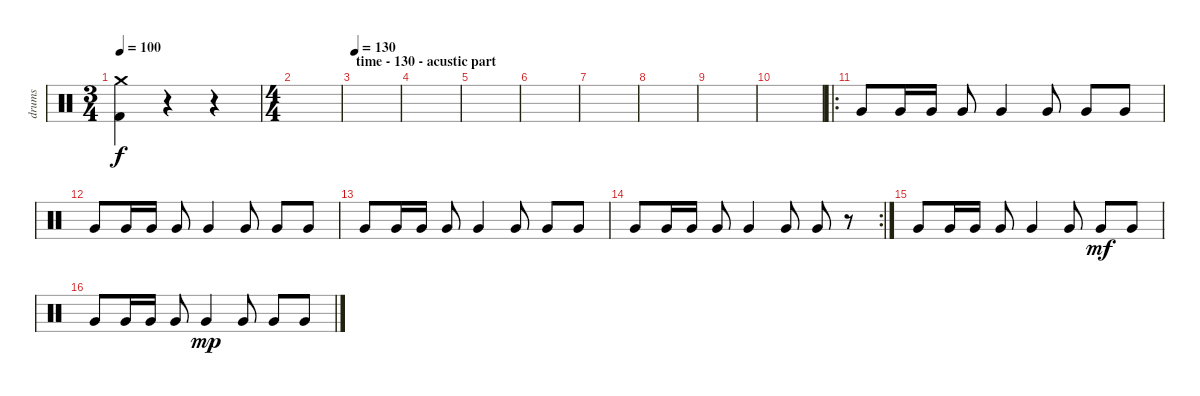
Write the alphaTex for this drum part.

\track ("drums" "drums") {instrument percussion}
\staff {score}
\articulation defaults
\ts (3 4)
\tempo 100
\clef neutral
\ks c
("Kick (hit) 2" "Crash medium (hit)").4{dy f} r.4 r.4 |
\ts (4 4)
|
\section ("" "time - 130 - acustic part")
\tempo 130
|
|
|
|
|
|
|
|
\ro "Very Low Tom (hit)".8 "Very Low Tom (hit)".16 "Very Low Tom (hit)".16 "Very Low Tom (hit)".8 "Very Low Tom (hit)".4 "Very Low Tom (hit)".8 "Very Low Tom (hit)".8 "Very Low Tom (hit)".8
|
"Very Low Tom (hit)".8 "Very Low Tom (hit)".16 "Very Low Tom (hit)".16 "Very Low Tom (hit)".8 "Very Low Tom (hit)".4 "Very Low Tom (hit)".8 "Very Low Tom (hit)".8 "Very Low Tom (hit)".8 |
"Very Low Tom (hit)".8 "Very Low Tom (hit)".16 "Very Low Tom (hit)".16 "Very Low Tom (hit)".8 "Very Low Tom (hit)".4 "Very Low Tom (hit)".8 "Very Low Tom (hit)".8 "Very Low Tom (hit)".8 |
\rc 2 "Very Low Tom (hit)".8 "Very Low Tom (hit)".16 "Very Low Tom (hit)".16 "Very Low Tom (hit)".8 "Very Low Tom (hit)".4 "Very Low Tom (hit)".8 "Very Low Tom (hit)".8
r.8 |
"Very Low Tom (hit)".8 "Very Low Tom (hit)".16 "Very Low Tom (hit)".16 "Very Low Tom (hit)".8 "Very Low Tom (hit)".4 "Very Low Tom (hit)".8 "Very Low Tom (hit)".8{dy mf} "Very Low Tom (hit)".8 |
"Very Low Tom (hit)".8 "Very Low Tom (hit)".16 "Very Low Tom (hit)".16 "Very Low Tom (hit)".8 "Very Low Tom (hit)".4{dy mp} "Very Low Tom (hit)".8 "Very Low Tom (hit)".8 "Very Low Tom (hit)".8
